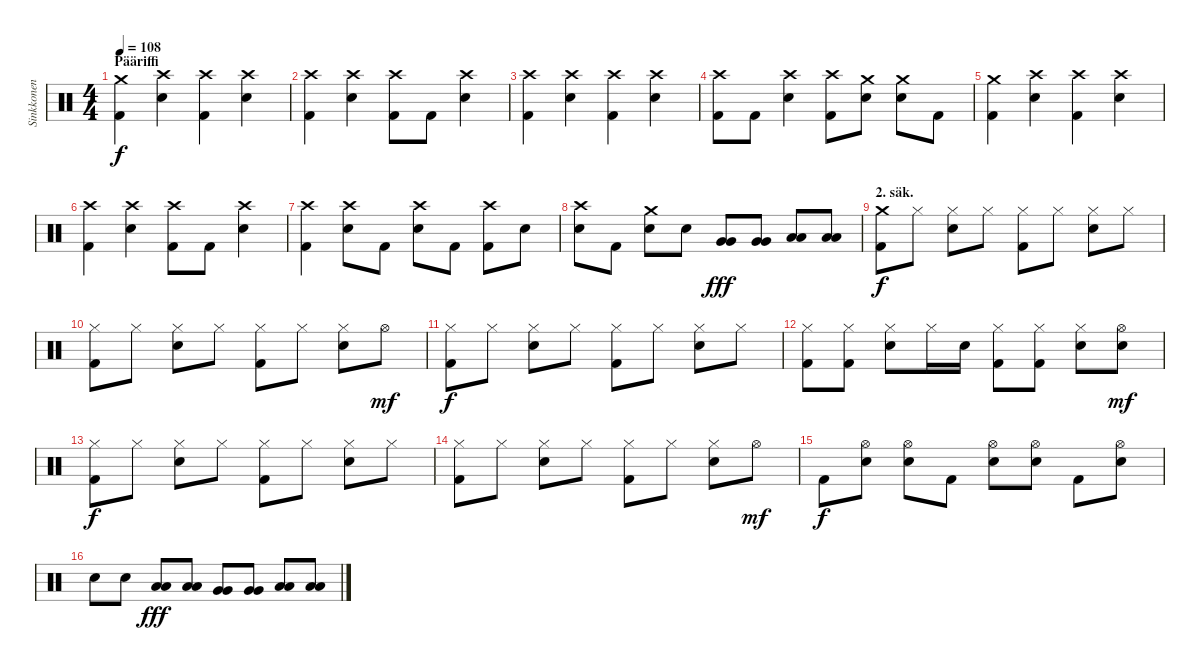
\track ("Sinkkonen" "Sinkkonen") {instrument percussion}
\staff {score}
\articulation defaults
\ts (4 4)
\section ("" "Pääriffi")
\tempo 108
\clef neutral
\ks c
("Kick (hit) 2" "Crash medium (hit)").4{dy f} ("Crash high (hit)" "Snare (hit) 2").4 ("Kick (hit) 2" "Crash high (hit)").4 ("Crash high (hit)" "Snare (hit) 2").4 |
("Kick (hit) 2" "Crash high (hit)").4 ("Crash high (hit)" "Snare (hit) 2").4 ("Kick (hit) 2" "Crash high (hit)").8 "Kick (hit) 2".8 ("Crash high (hit)" "Snare (hit) 2").4 |
("Kick (hit) 2" "Crash high (hit)").4 ("Crash high (hit)" "Snare (hit) 2").4 ("Kick (hit) 2" "Crash high (hit)").4 ("Crash high (hit)" "Snare (hit) 2").4 |
("Kick (hit) 2" "Crash high (hit)").8 "Kick (hit) 2".8 ("Crash high (hit)" "Snare (hit) 2").4 ("Kick (hit) 2" "Crash high (hit)").8 ("Crash medium (hit)" "Snare (hit) 2").8 ("Crash medium (hit)" "Snare (hit) 2").8 "Kick (hit) 2".8 |
("Kick (hit) 2" "Crash medium (hit)").4 ("Crash high (hit)" "Snare (hit) 2").4 ("Kick (hit) 2" "Crash high (hit)").4 ("Crash high (hit)" "Snare (hit) 2").4 |
("Kick (hit) 2" "Crash high (hit)").4 ("Crash high (hit)" "Snare (hit) 2").4 ("Kick (hit) 2" "Crash high (hit)").8 "Kick (hit) 2".8 ("Crash high (hit)" "Snare (hit) 2").4 |
("Kick (hit) 2" "Crash high (hit)").4 ("Crash high (hit)" "Snare (hit) 2").8 "Kick (hit) 2".8 ("Crash high (hit)" "Snare (hit) 2").8 "Kick (hit) 2".8 ("Kick (hit) 2" "Crash high (hit)").8 "Snare (hit) 2".8 |
("Crash high (hit)" "Snare (hit) 2").8 "Kick (hit) 2".8 ("Crash medium (hit)" "Snare (hit) 2").8 "Snare (hit) 2".8 ("Very Low Tom (hit)" "Very Low Tom (hit)").8{dy fff} ("Very Low Tom (hit)" "Very Low Tom (hit)").8 ("Low Floor Tom (hit)" "Low Floor Tom (hit)").8 ("Low Floor Tom (hit)" "Low Floor Tom (hit)").8 |
\section ("" "2. säk.")
("Kick (hit) 2" "Crash medium (hit)").8{dy f} "Hi-Hat (closed)".8 ("Hi-Hat (closed)" "Snare (hit) 2").8 "Hi-Hat (closed)".8 ("Kick (hit) 2" "Hi-Hat (closed)").8 "Hi-Hat (closed)".8 ("Hi-Hat (closed)" "Snare (hit) 2").8 "Hi-Hat (closed)".8 |
("Kick (hit) 2" "Hi-Hat (closed)").8 "Hi-Hat (closed)".8 ("Hi-Hat (closed)" "Snare (hit) 2").8 "Hi-Hat (closed)".8 ("Kick (hit) 2" "Hi-Hat (closed)").8 "Hi-Hat (closed)".8 ("Hi-Hat (closed)" "Snare (hit) 2").8 "Hi-Hat (open)".8{dy mf} |
("Kick (hit) 2" "Hi-Hat (closed)").8{dy f} "Hi-Hat (closed)".8 ("Hi-Hat (closed)" "Snare (hit) 2").8 "Hi-Hat (closed)".8 ("Kick (hit) 2" "Hi-Hat (closed)").8 "Hi-Hat (closed)".8 ("Hi-Hat (closed)" "Snare (hit) 2").8 "Hi-Hat (closed)".8 |
("Kick (hit) 2" "Hi-Hat (closed)").8 ("Kick (hit) 2" "Hi-Hat (closed)").8 ("Hi-Hat (closed)" "Snare (hit) 2").8 "Hi-Hat (closed)".16 "Snare (hit) 2".16 ("Kick (hit) 2" "Hi-Hat (closed)").8 ("Kick (hit) 2" "Hi-Hat (closed)").8 ("Hi-Hat (closed)" "Snare (hit) 2").8 ("Hi-Hat (open)" "Snare (hit) 2").8{dy mf} |
("Kick (hit) 2" "Hi-Hat (closed)").8{dy f} "Hi-Hat (closed)".8 ("Hi-Hat (closed)" "Snare (hit) 2").8 "Hi-Hat (closed)".8 ("Kick (hit) 2" "Hi-Hat (closed)").8 "Hi-Hat (closed)".8 ("Hi-Hat (closed)" "Snare (hit) 2").8 "Hi-Hat (closed)".8 |
("Kick (hit) 2" "Hi-Hat (closed)").8 "Hi-Hat (closed)".8 ("Hi-Hat (closed)" "Snare (hit) 2").8 "Hi-Hat (closed)".8 ("Kick (hit) 2" "Hi-Hat (closed)").8 "Hi-Hat (closed)".8 ("Hi-Hat (closed)" "Snare (hit) 2").8 "Hi-Hat (open)".8{dy mf} |
"Kick (hit) 2".8{dy f} ("Hi-Hat (open)" "Snare (hit) 2").8 ("Hi-Hat (open)" "Snare (hit) 2").8 "Kick (hit) 2".8 ("Hi-Hat (open)" "Snare (hit) 2").8 ("Hi-Hat (open)" "Snare (hit) 2").8 "Kick (hit) 2".8 ("Hi-Hat (open)" "Snare (hit) 2").8 |
"Snare (hit) 2".8 "Snare (hit) 2".8 ("Low Tom (hit)" "Low Tom (hit)").8{dy fff} ("Low Tom (hit)" "Low Tom (hit)").8 ("Very Low Tom (hit)" "Very Low Tom (hit)").8 ("Very Low Tom (hit)" "Very Low Tom (hit)").8 ("Low Floor Tom (hit)" "Low Floor Tom (hit)").8 ("Low Floor Tom (hit)" "Low Floor Tom (hit)").8
